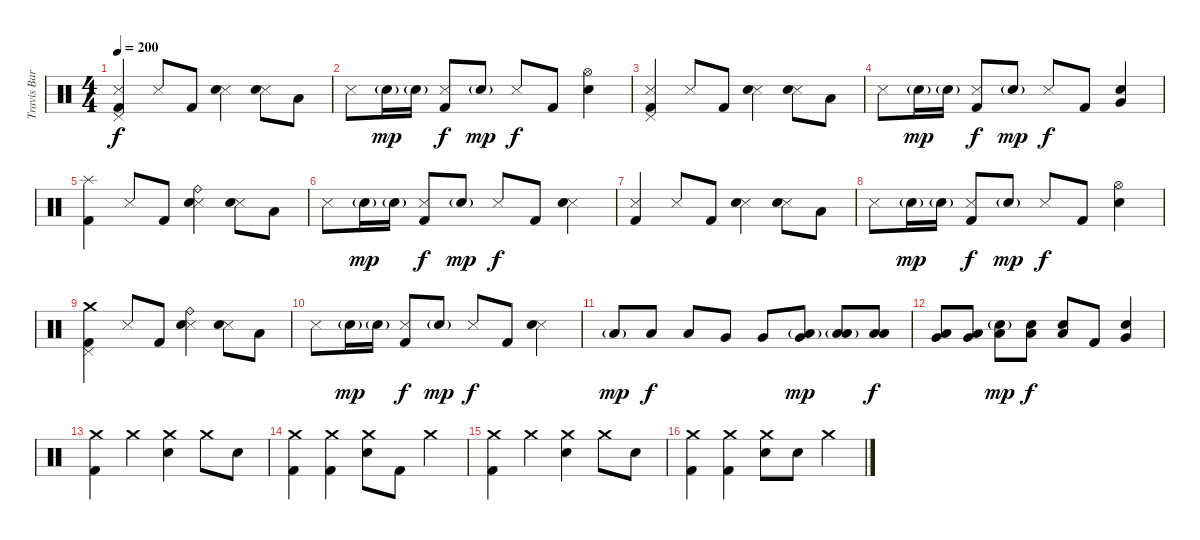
\track ("Travis Barker - Drums" "Travis Bar") {instrument percussion}
\staff {score}
\articulation defaults
\ts (4 4)
\tempo 200
\clef neutral
\ks c
("Metronome (hit)" "Pedal Hi-Hat (hit)" "Kick (hit) 2").4{dy f} "Metronome (hit)".8 "Kick (hit) 2".8 ("Metronome (hit)" "Electric Snare (hit)").4 ("Metronome (hit)" "Electric Snare (hit)").8 "Low Tom (hit)".8 |
"Metronome (hit)".8 "Electric Snare (hit)"{g}.16{dy mp} "Electric Snare (hit)"{g}.16 ("Metronome (hit)" "Kick (hit) 2").8{dy f} "Electric Snare (hit)"{g}.8{dy mp} "Metronome (hit)".8{dy f} "Kick (hit) 2".8 ("Hi-Hat (open)" "Electric Snare (hit)").4 |
("Metronome (hit)" "Pedal Hi-Hat (hit)" "Kick (hit) 2").4 "Metronome (hit)".8 "Kick (hit) 2".8 ("Metronome (hit)" "Electric Snare (hit)").4 ("Metronome (hit)" "Electric Snare (hit)").8 "Low Tom (hit)".8 |
"Metronome (hit)".8 "Electric Snare (hit)"{g}.16{dy mp} "Electric Snare (hit)"{g}.16 ("Metronome (hit)" "Kick (hit) 2").8{dy f} "Electric Snare (hit)"{g}.8{dy mp} "Metronome (hit)".8{dy f} "Kick (hit) 2".8 ("Electric Snare (hit)" "Very Low Tom (hit)").4 |
("Splash (hit)" "Kick (hit) 2").4 "Metronome (hit)".8 "Kick (hit) 2".8 ("Metronome (hit)" "Ride (bell)" "Electric Snare (hit)").4 ("Metronome (hit)" "Electric Snare (hit)").8 "Low Tom (hit)".8 |
"Metronome (hit)".8 "Electric Snare (hit)"{g}.16{dy mp} "Electric Snare (hit)"{g}.16 ("Metronome (hit)" "Kick (hit) 2").8{dy f} "Electric Snare (hit)"{g}.8{dy mp} "Metronome (hit)".8{dy f} "Kick (hit) 2".8 ("Metronome (hit)" "Electric Snare (hit)").4 |
("Metronome (hit)" "Kick (hit) 2").4 "Metronome (hit)".8 "Kick (hit) 2".8 ("Metronome (hit)" "Electric Snare (hit)").4 ("Metronome (hit)" "Electric Snare (hit)").8 "Low Tom (hit)".8 |
"Metronome (hit)".8 "Electric Snare (hit)"{g}.16{dy mp} "Electric Snare (hit)"{g}.16 ("Metronome (hit)" "Kick (hit) 2").8{dy f} "Electric Snare (hit)"{g}.8{dy mp} "Metronome (hit)".8{dy f} "Kick (hit) 2".8 ("Hi-Hat (open)" "Electric Snare (hit)").4 |
("Crash medium (hit)" "Pedal Hi-Hat (hit)" "Kick (hit) 2").4 "Metronome (hit)".8 "Kick (hit) 2".8 ("Metronome (hit)" "Ride (bell)" "Electric Snare (hit)").4 ("Metronome (hit)" "Electric Snare (hit)").8 "Low Tom (hit)".8 |
"Metronome (hit)".8 "Electric Snare (hit)"{g}.16{dy mp} "Electric Snare (hit)"{g}.16 ("Metronome (hit)" "Kick (hit) 2").8{dy f} "Electric Snare (hit)"{g}.8{dy mp} "Metronome (hit)".8{dy f} "Kick (hit) 2".8 ("Metronome (hit)" "Electric Snare (hit)").4 |
"Low Floor Tom (hit)"{g}.8{dy mp} "Low Floor Tom (hit)".8{dy f} "Low Floor Tom (hit)".8 "Very Low Tom (hit)".8 "Very Low Tom (hit)".8 ("Very Low Tom (hit)" "Low Floor Tom (hit)"{g}).8{dy mp} ("Low Tom (hit)" "Low Floor Tom (hit)"{g}).8 ("Low Tom (hit)" "Low Floor Tom (hit)").8{dy f} |
("Low Tom (hit)" "Very Low Tom (hit)").8 ("Low Tom (hit)" "Very Low Tom (hit)").8 ("Electric Snare (hit)"{g} "Low Tom (hit)").8{dy mp} ("Electric Snare (hit)" "Low Tom (hit)").8{dy f} ("Electric Snare (hit)" "Low Tom (hit)").8 "Kick (hit) 2".8 ("Electric Snare (hit)" "Very Low Tom (hit)").4 |
("Crash medium (hit)" "Kick (hit) 2").4 "Crash medium (hit)".4 ("Crash medium (hit)" "Electric Snare (hit)").4 "Crash medium (hit)".8 "Electric Snare (hit)".8 |
("Crash medium (hit)" "Kick (hit) 2").4 ("Crash medium (hit)" "Kick (hit) 2").4 ("Crash medium (hit)" "Electric Snare (hit)").8 "Kick (hit) 2".8 "Crash medium (hit)".4 |
("Crash medium (hit)" "Kick (hit) 2").4 "Crash medium (hit)".4 ("Crash medium (hit)" "Electric Snare (hit)").4 "Crash medium (hit)".8 "Electric Snare (hit)".8 |
("Crash medium (hit)" "Kick (hit) 2").4 ("Crash medium (hit)" "Kick (hit) 2").4 ("Crash medium (hit)" "Electric Snare (hit)").8 "Electric Snare (hit)".8 "Crash medium (hit)".4
